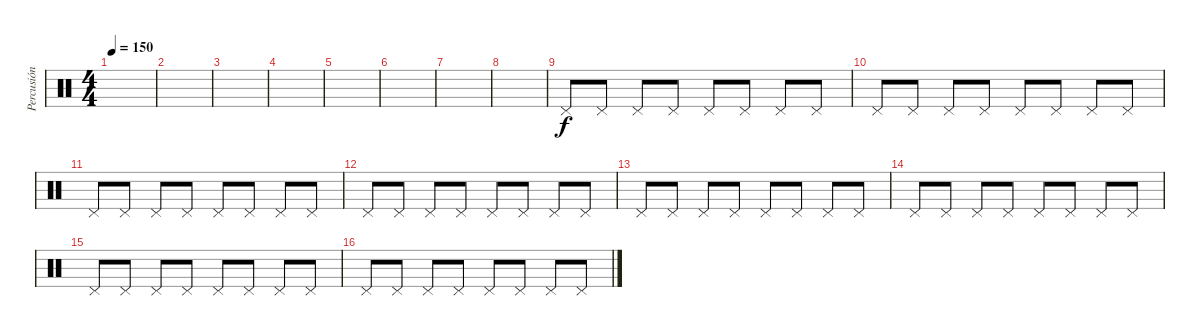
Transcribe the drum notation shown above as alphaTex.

\track ("Percusión" "Percusión") {instrument percussion}
\staff {score}
\articulation defaults
\ts (4 4)
\tempo 150
\clef neutral
\ks c
|
|
|
|
|
|
|
|
"Pedal Hi-Hat (hit)".8 "Pedal Hi-Hat (hit)".8 "Pedal Hi-Hat (hit)".8 "Pedal Hi-Hat (hit)".8 "Pedal Hi-Hat (hit)".8 "Pedal Hi-Hat (hit)".8 "Pedal Hi-Hat (hit)".8 "Pedal Hi-Hat (hit)".8 |
"Pedal Hi-Hat (hit)".8 "Pedal Hi-Hat (hit)".8 "Pedal Hi-Hat (hit)".8 "Pedal Hi-Hat (hit)".8 "Pedal Hi-Hat (hit)".8 "Pedal Hi-Hat (hit)".8 "Pedal Hi-Hat (hit)".8 "Pedal Hi-Hat (hit)".8 |
"Pedal Hi-Hat (hit)".8 "Pedal Hi-Hat (hit)".8 "Pedal Hi-Hat (hit)".8 "Pedal Hi-Hat (hit)".8 "Pedal Hi-Hat (hit)".8 "Pedal Hi-Hat (hit)".8 "Pedal Hi-Hat (hit)".8 "Pedal Hi-Hat (hit)".8 |
"Pedal Hi-Hat (hit)".8 "Pedal Hi-Hat (hit)".8 "Pedal Hi-Hat (hit)".8 "Pedal Hi-Hat (hit)".8 "Pedal Hi-Hat (hit)".8 "Pedal Hi-Hat (hit)".8 "Pedal Hi-Hat (hit)".8 "Pedal Hi-Hat (hit)".8 |
"Pedal Hi-Hat (hit)".8 "Pedal Hi-Hat (hit)".8 "Pedal Hi-Hat (hit)".8 "Pedal Hi-Hat (hit)".8 "Pedal Hi-Hat (hit)".8 "Pedal Hi-Hat (hit)".8 "Pedal Hi-Hat (hit)".8 "Pedal Hi-Hat (hit)".8 |
"Pedal Hi-Hat (hit)".8 "Pedal Hi-Hat (hit)".8 "Pedal Hi-Hat (hit)".8 "Pedal Hi-Hat (hit)".8 "Pedal Hi-Hat (hit)".8 "Pedal Hi-Hat (hit)".8 "Pedal Hi-Hat (hit)".8 "Pedal Hi-Hat (hit)".8 |
"Pedal Hi-Hat (hit)".8 "Pedal Hi-Hat (hit)".8 "Pedal Hi-Hat (hit)".8 "Pedal Hi-Hat (hit)".8 "Pedal Hi-Hat (hit)".8 "Pedal Hi-Hat (hit)".8 "Pedal Hi-Hat (hit)".8 "Pedal Hi-Hat (hit)".8 |
"Pedal Hi-Hat (hit)".8 "Pedal Hi-Hat (hit)".8 "Pedal Hi-Hat (hit)".8 "Pedal Hi-Hat (hit)".8 "Pedal Hi-Hat (hit)".8 "Pedal Hi-Hat (hit)".8 "Pedal Hi-Hat (hit)".8 "Pedal Hi-Hat (hit)".8
